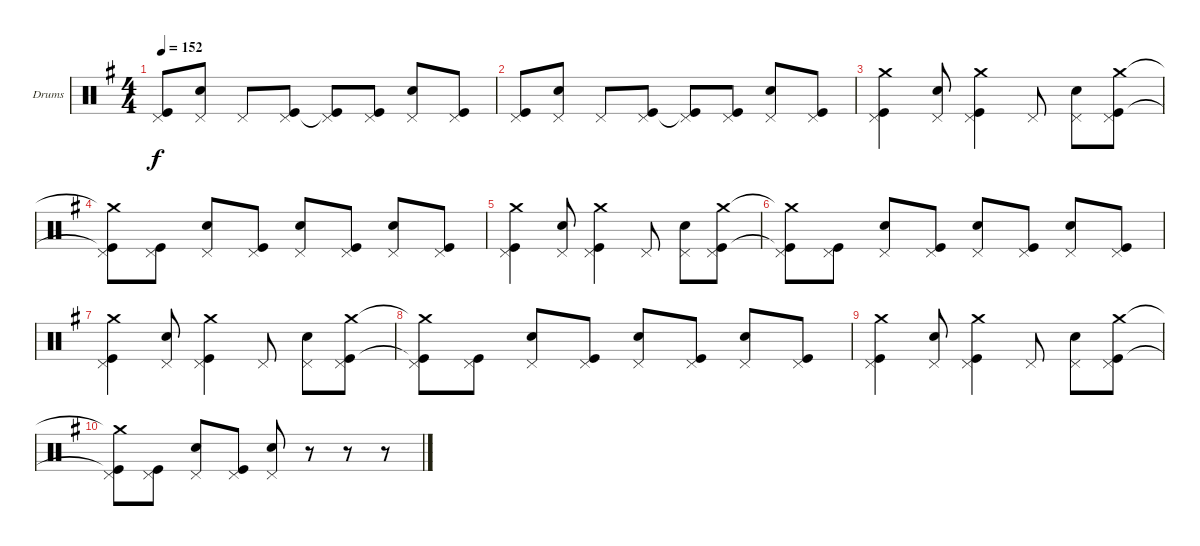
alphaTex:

\defaultSystemsLayout 4
\bracketExtendMode groupsimilarinstruments
\firstSystemTrackNameOrientation horizontal
\otherSystemsTrackNameOrientation horizontal
\track ("Drumkit" "Drums") {instrument percussion}
\staff {score}
\articulation defaults
\ts (4 4)
\tempo 152
\clef neutral
\scale
0.957125
\ks g
("Kick (hit)" "Pedal Hi-Hat (hit)").8{dy f} ("Snare (hit) 2" "Pedal Hi-Hat (hit)").8 "Pedal Hi-Hat (hit)".8 ("Kick (hit)" "Pedal Hi-Hat (hit)").8 ("Kick (hit)"{t} "Pedal Hi-Hat (hit)").8 ("Kick (hit)" "Pedal Hi-Hat (hit)").8 ("Snare (hit) 2" "Pedal Hi-Hat (hit)").8 ("Kick (hit)" "Pedal Hi-Hat (hit)").8 |
\scale
1.08575 ("Kick (hit)" "Pedal Hi-Hat (hit)").8 ("Snare (hit) 2" "Pedal Hi-Hat (hit)").8 "Pedal Hi-Hat (hit)".8 ("Kick (hit)" "Pedal Hi-Hat (hit)").8 ("Kick (hit)"{t} "Pedal Hi-Hat (hit)").8 ("Kick (hit)" "Pedal Hi-Hat (hit)").8 ("Snare (hit) 2" "Pedal Hi-Hat (hit)").8 ("Kick (hit)" "Pedal Hi-Hat (hit)").8 |
\scale
0.957125 ("Kick (hit)" "Crash medium (hit)" "Pedal Hi-Hat (hit)").4 ("Snare (hit) 2" "Pedal Hi-Hat (hit)").8 ("Kick (hit)" "Crash medium (hit)" "Pedal Hi-Hat (hit)").4 "Pedal Hi-Hat (hit)".8 ("Snare (hit) 2" "Pedal Hi-Hat (hit)").8 ("Kick (hit)" "Crash medium (hit)" "Pedal Hi-Hat (hit)").8 |
\scale
0.957125 ("Kick (hit)"{t} "Crash medium (hit)"{t} "Pedal Hi-Hat (hit)").8 ("Kick (hit)" "Pedal Hi-Hat (hit)").8 ("Snare (hit) 2" "Pedal Hi-Hat (hit)").8 ("Kick (hit)" "Pedal Hi-Hat (hit)").8 ("Snare (hit) 2" "Pedal Hi-Hat (hit)").8 ("Kick (hit)" "Pedal Hi-Hat (hit)").8 ("Snare (hit) 2" "Pedal Hi-Hat (hit)").8 ("Kick (hit)" "Pedal Hi-Hat (hit)").8 |
\scale
1.08575 ("Kick (hit)" "Crash medium (hit)" "Pedal Hi-Hat (hit)").4 ("Snare (hit) 2" "Pedal Hi-Hat (hit)").8 ("Kick (hit)" "Crash medium (hit)" "Pedal Hi-Hat (hit)").4 "Pedal Hi-Hat (hit)".8 ("Snare (hit) 2" "Pedal Hi-Hat (hit)").8 ("Kick (hit)" "Crash medium (hit)" "Pedal Hi-Hat (hit)").8 |
\scale
0.957125 ("Kick (hit)"{t} "Crash medium (hit)"{t} "Pedal Hi-Hat (hit)").8 ("Kick (hit)" "Pedal Hi-Hat (hit)").8 ("Snare (hit) 2" "Pedal Hi-Hat (hit)").8 ("Kick (hit)" "Pedal Hi-Hat (hit)").8 ("Snare (hit) 2" "Pedal Hi-Hat (hit)").8 ("Kick (hit)" "Pedal Hi-Hat (hit)").8 ("Snare (hit) 2" "Pedal Hi-Hat (hit)").8 ("Kick (hit)" "Pedal Hi-Hat (hit)").8 |
\scale
0.957125 ("Kick (hit)" "Crash medium (hit)" "Pedal Hi-Hat (hit)").4 ("Snare (hit) 2" "Pedal Hi-Hat (hit)").8 ("Kick (hit)" "Crash medium (hit)" "Pedal Hi-Hat (hit)").4 "Pedal Hi-Hat (hit)".8 ("Snare (hit) 2" "Pedal Hi-Hat (hit)").8 ("Kick (hit)" "Crash medium (hit)" "Pedal Hi-Hat (hit)").8 |
\scale
1.08575 ("Kick (hit)"{t} "Crash medium (hit)"{t} "Pedal Hi-Hat (hit)").8 ("Kick (hit)" "Pedal Hi-Hat (hit)").8 ("Snare (hit) 2" "Pedal Hi-Hat (hit)").8 ("Kick (hit)" "Pedal Hi-Hat (hit)").8 ("Snare (hit) 2" "Pedal Hi-Hat (hit)").8 ("Kick (hit)" "Pedal Hi-Hat (hit)").8 ("Snare (hit) 2" "Pedal Hi-Hat (hit)").8 ("Kick (hit)" "Pedal Hi-Hat (hit)").8 |
\scale
0.957125 ("Kick (hit)" "Crash medium (hit)" "Pedal Hi-Hat (hit)").4 ("Snare (hit) 2" "Pedal Hi-Hat (hit)").8 ("Kick (hit)" "Crash medium (hit)" "Pedal Hi-Hat (hit)").4 "Pedal Hi-Hat (hit)".8 ("Snare (hit) 2" "Pedal Hi-Hat (hit)").8 ("Kick (hit)" "Crash medium (hit)" "Pedal Hi-Hat (hit)").8 |
\scale
0.957125 ("Kick (hit)"{t} "Crash medium (hit)"{t} "Pedal Hi-Hat (hit)").8 ("Kick (hit)" "Pedal Hi-Hat (hit)").8 ("Snare (hit) 2" "Pedal Hi-Hat (hit)").8 ("Kick (hit)" "Pedal Hi-Hat (hit)").8 ("Snare (hit) 2" "Pedal Hi-Hat (hit)").8 r.8 r.8 r.8
